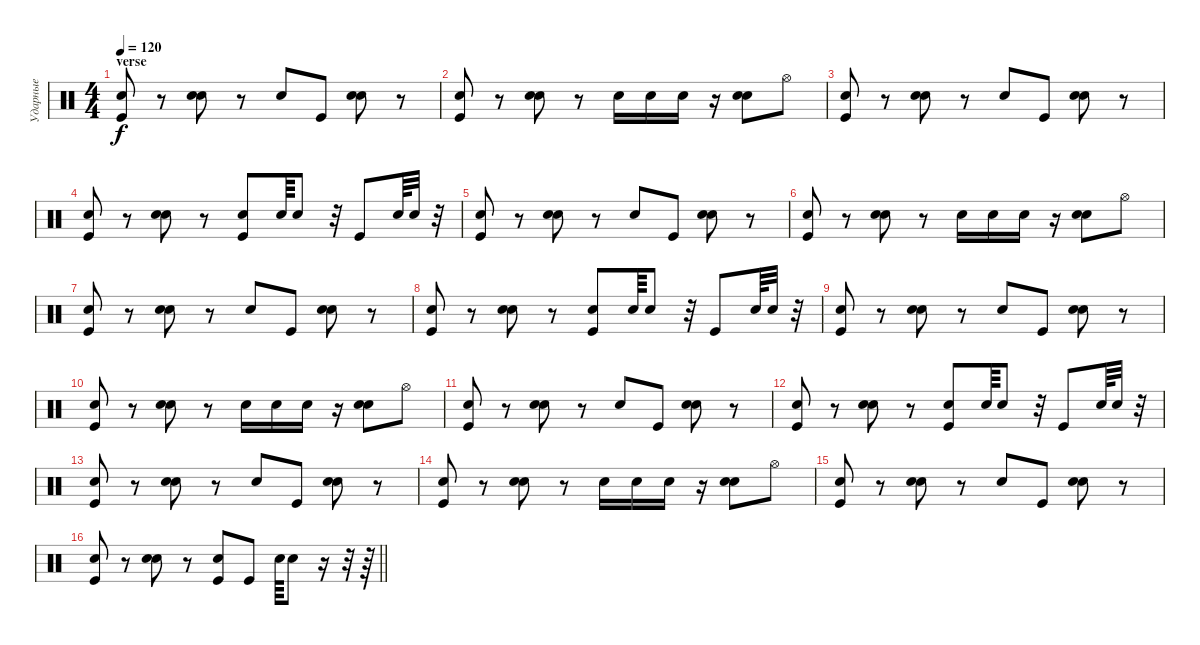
\track ("Ударные" "Ударные") {instrument percussion}
\staff {score}
\articulation defaults
\ts (4 4)
\section ("" "verse")
\tempo 120
\clef neutral
\ks c
("Snare (hit) 2" "Kick (hit)").8{dy f} r.8 ("Electric Snare (hit)" "Snare (hit) 2").8 r.8 "Snare (hit) 2".8 "Kick (hit)".8 ("Electric Snare (hit)" "Snare (hit) 2").8 r.8 |
("Snare (hit) 2" "Kick (hit)").8 r.8 ("Electric Snare (hit)" "Snare (hit) 2").8 r.8 "Snare (hit) 2".16 "Snare (hit) 2".16 "Snare (hit) 2".16 r.16 ("Electric Snare (hit)" "Snare (hit) 2").8 "Hi-Hat (open)".8 |
("Snare (hit) 2" "Kick (hit)").8 r.8 ("Electric Snare (hit)" "Snare (hit) 2").8 r.8 "Snare (hit) 2".8 "Kick (hit)".8 ("Electric Snare (hit)" "Snare (hit) 2").8 r.8 |
("Snare (hit) 2" "Kick (hit)").8 r.8 ("Electric Snare (hit)" "Snare (hit) 2").8 r.8 ("Snare (hit) 2" "Kick (hit)").8 "Electric Snare (hit)".64 "Electric Snare (hit)".8 r.32 "Kick (hit)".8 "Electric Snare (hit)".64 "Electric Snare (hit)".32 r.32 |
("Snare (hit) 2" "Kick (hit)").8 r.8 ("Electric Snare (hit)" "Snare (hit) 2").8 r.8 "Snare (hit) 2".8 "Kick (hit)".8 ("Electric Snare (hit)" "Snare (hit) 2").8 r.8 |
("Snare (hit) 2" "Kick (hit)").8 r.8 ("Electric Snare (hit)" "Snare (hit) 2").8 r.8 "Snare (hit) 2".16 "Snare (hit) 2".16 "Snare (hit) 2".16 r.16 ("Electric Snare (hit)" "Snare (hit) 2").8 "Hi-Hat (open)".8 |
("Snare (hit) 2" "Kick (hit)").8 r.8 ("Electric Snare (hit)" "Snare (hit) 2").8 r.8 "Snare (hit) 2".8 "Kick (hit)".8 ("Electric Snare (hit)" "Snare (hit) 2").8 r.8 |
("Snare (hit) 2" "Kick (hit)").8 r.8 ("Electric Snare (hit)" "Snare (hit) 2").8 r.8 ("Snare (hit) 2" "Kick (hit)").8 "Electric Snare (hit)".64 "Electric Snare (hit)".8 r.32 "Kick (hit)".8 "Electric Snare (hit)".64 "Electric Snare (hit)".32 r.32 |
("Snare (hit) 2" "Kick (hit)").8 r.8 ("Electric Snare (hit)" "Snare (hit) 2").8 r.8 "Snare (hit) 2".8 "Kick (hit)".8 ("Electric Snare (hit)" "Snare (hit) 2").8 r.8 |
("Snare (hit) 2" "Kick (hit)").8 r.8 ("Electric Snare (hit)" "Snare (hit) 2").8 r.8 "Snare (hit) 2".16 "Snare (hit) 2".16 "Snare (hit) 2".16 r.16 ("Electric Snare (hit)" "Snare (hit) 2").8 "Hi-Hat (open)".8 |
("Snare (hit) 2" "Kick (hit)").8 r.8 ("Electric Snare (hit)" "Snare (hit) 2").8 r.8 "Snare (hit) 2".8 "Kick (hit)".8 ("Electric Snare (hit)" "Snare (hit) 2").8 r.8 |
("Snare (hit) 2" "Kick (hit)").8 r.8 ("Electric Snare (hit)" "Snare (hit) 2").8 r.8 ("Snare (hit) 2" "Kick (hit)").8 "Electric Snare (hit)".64 "Electric Snare (hit)".8 r.32 "Kick (hit)".8 "Electric Snare (hit)".64 "Electric Snare (hit)".32 r.32 |
("Snare (hit) 2" "Kick (hit)").8 r.8 ("Electric Snare (hit)" "Snare (hit) 2").8 r.8 "Snare (hit) 2".8 "Kick (hit)".8 ("Electric Snare (hit)" "Snare (hit) 2").8 r.8 |
("Snare (hit) 2" "Kick (hit)").8 r.8 ("Electric Snare (hit)" "Snare (hit) 2").8 r.8 "Snare (hit) 2".16 "Snare (hit) 2".16 "Snare (hit) 2".16 r.16 ("Electric Snare (hit)" "Snare (hit) 2").8 "Hi-Hat (open)".8 |
("Snare (hit) 2" "Kick (hit)").8 r.8 ("Electric Snare (hit)" "Snare (hit) 2").8 r.8 "Snare (hit) 2".8 "Kick (hit)".8 ("Electric Snare (hit)" "Snare (hit) 2").8 r.8 |
\barLineRight lightlight
("Snare (hit) 2" "Kick (hit)").8 r.8 ("Electric Snare (hit)" "Snare (hit) 2").8 r.8 ("Snare (hit) 2" "Kick (hit)").8 "Kick (hit)".8 "Snare (hit) 2".64 "Snare (hit) 2".8 r.16 r.32 r.64
